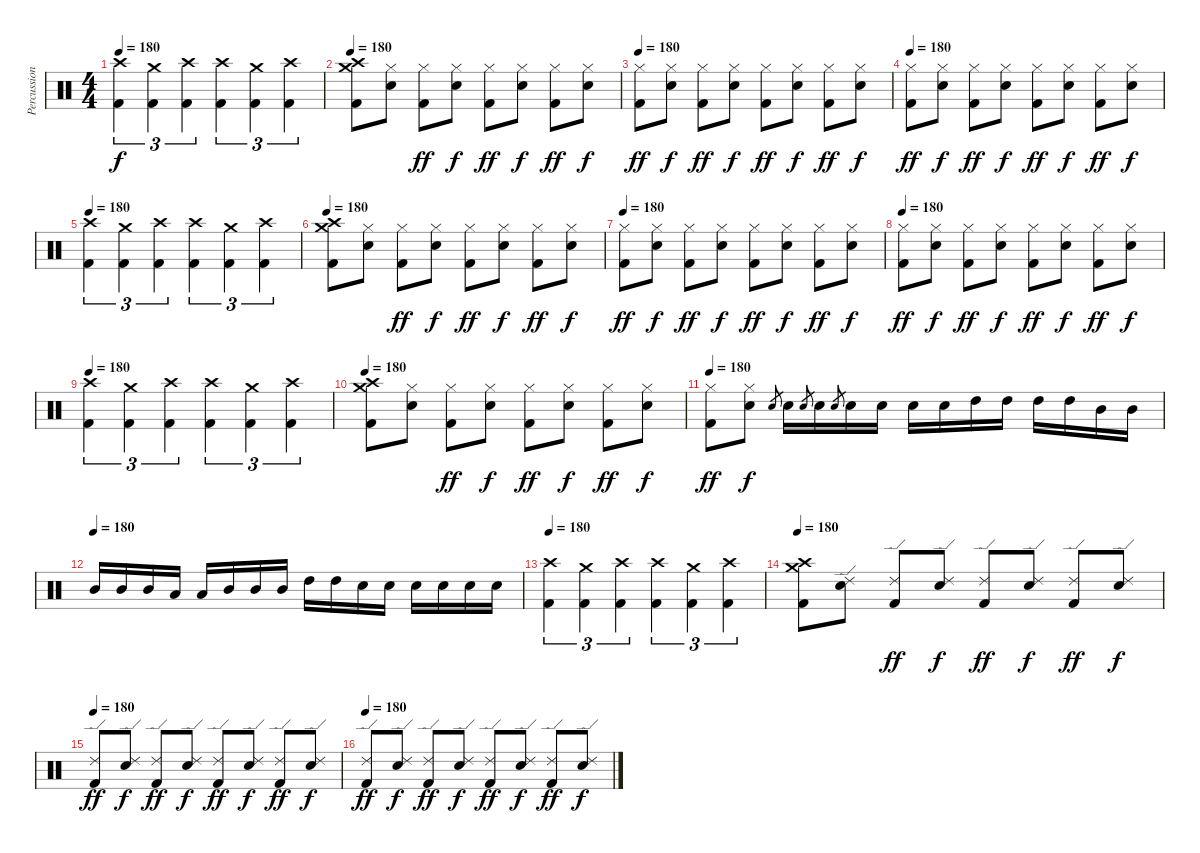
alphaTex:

\track ("Percussion" "Percussion") {instrument percussion}
\staff {score}
\articulation defaults
\ts (4 4)
\tempo 180
\clef neutral
\ks c
("Crash high (hit)" "Kick (hit) 2").4{tu (3 2) dy f} ("Crash medium (hit)" "Kick (hit) 2").4{tu (3 2)} ("Crash high (hit)" "Kick (hit) 2").4{tu (3 2)} ("Crash high (hit)" "Kick (hit) 2").4{tu (3 2)} ("Crash medium (hit)" "Kick (hit) 2").4{tu (3 2)} ("Crash high (hit)" "Kick (hit) 2").4{tu (3 2)} |
\tempo 180
("Crash high (hit)" "Crash medium (hit)" "Kick (hit) 2").8 ("Hi-Hat (closed)" "Snare (hit) 2").8 ("Hi-Hat (closed)" "Kick (hit) 2").8{dy ff} ("Hi-Hat (closed)" "Snare (hit) 2").8{dy f} ("Hi-Hat (closed)" "Kick (hit) 2").8{dy ff} ("Hi-Hat (closed)" "Snare (hit) 2").8{dy f} ("Hi-Hat (closed)" "Kick (hit) 2").8{dy ff} ("Hi-Hat (closed)" "Snare (hit) 2").8{dy f} |
\tempo 180
("Hi-Hat (closed)" "Kick (hit) 2").8{dy ff} ("Hi-Hat (closed)" "Snare (hit) 2").8{dy f} ("Hi-Hat (closed)" "Kick (hit) 2").8{dy ff} ("Hi-Hat (closed)" "Snare (hit) 2").8{dy f} ("Hi-Hat (closed)" "Kick (hit) 2").8{dy ff} ("Hi-Hat (closed)" "Snare (hit) 2").8{dy f} ("Hi-Hat (closed)" "Kick (hit) 2").8{dy ff} ("Hi-Hat (closed)" "Snare (hit) 2").8{dy f} |
\tempo 180
("Hi-Hat (closed)" "Kick (hit) 2").8{dy ff} ("Hi-Hat (closed)" "Snare (hit) 2").8{dy f} ("Hi-Hat (closed)" "Kick (hit) 2").8{dy ff} ("Hi-Hat (closed)" "Snare (hit) 2").8{dy f} ("Hi-Hat (closed)" "Kick (hit) 2").8{dy ff} ("Hi-Hat (closed)" "Snare (hit) 2").8{dy f} ("Hi-Hat (closed)" "Kick (hit) 2").8{dy ff} ("Hi-Hat (closed)" "Snare (hit) 2").8{dy f} |
\tempo 180
("Crash high (hit)" "Kick (hit) 2").4{tu (3 2)} ("Crash medium (hit)" "Kick (hit) 2").4{tu (3 2)} ("Crash high (hit)" "Kick (hit) 2").4{tu (3 2)} ("Crash high (hit)" "Kick (hit) 2").4{tu (3 2)} ("Crash medium (hit)" "Kick (hit) 2").4{tu (3 2)} ("Crash high (hit)" "Kick (hit) 2").4{tu (3 2)} |
\tempo 180
("Crash high (hit)" "Crash medium (hit)" "Kick (hit) 2").8 ("Hi-Hat (closed)" "Snare (hit) 2").8 ("Hi-Hat (closed)" "Kick (hit) 2").8{dy ff} ("Hi-Hat (closed)" "Snare (hit) 2").8{dy f} ("Hi-Hat (closed)" "Kick (hit) 2").8{dy ff} ("Hi-Hat (closed)" "Snare (hit) 2").8{dy f} ("Hi-Hat (closed)" "Kick (hit) 2").8{dy ff} ("Hi-Hat (closed)" "Snare (hit) 2").8{dy f} |
\tempo 180
("Hi-Hat (closed)" "Kick (hit) 2").8{dy ff} ("Hi-Hat (closed)" "Snare (hit) 2").8{dy f} ("Hi-Hat (closed)" "Kick (hit) 2").8{dy ff} ("Hi-Hat (closed)" "Snare (hit) 2").8{dy f} ("Hi-Hat (closed)" "Kick (hit) 2").8{dy ff} ("Hi-Hat (closed)" "Snare (hit) 2").8{dy f} ("Hi-Hat (closed)" "Kick (hit) 2").8{dy ff} ("Hi-Hat (closed)" "Snare (hit) 2").8{dy f} |
\tempo 180
("Hi-Hat (closed)" "Kick (hit) 2").8{dy ff} ("Hi-Hat (closed)" "Snare (hit) 2").8{dy f} ("Hi-Hat (closed)" "Kick (hit) 2").8{dy ff} ("Hi-Hat (closed)" "Snare (hit) 2").8{dy f} ("Hi-Hat (closed)" "Kick (hit) 2").8{dy ff} ("Hi-Hat (closed)" "Snare (hit) 2").8{dy f} ("Hi-Hat (closed)" "Kick (hit) 2").8{dy ff} ("Hi-Hat (closed)" "Snare (hit) 2").8{dy f} |
\tempo 180
("Crash high (hit)" "Kick (hit) 2").4{tu (3 2)} ("Crash medium (hit)" "Kick (hit) 2").4{tu (3 2)} ("Crash high (hit)" "Kick (hit) 2").4{tu (3 2)} ("Crash high (hit)" "Kick (hit) 2").4{tu (3 2)} ("Crash medium (hit)" "Kick (hit) 2").4{tu (3 2)} ("Crash high (hit)" "Kick (hit) 2").4{tu (3 2)} |
\tempo 180
("Crash high (hit)" "Crash medium (hit)" "Kick (hit) 2").8 ("Hi-Hat (closed)" "Snare (hit) 2").8 ("Hi-Hat (closed)" "Kick (hit) 2").8{dy ff} ("Hi-Hat (closed)" "Snare (hit) 2").8{dy f} ("Hi-Hat (closed)" "Kick (hit) 2").8{dy ff} ("Hi-Hat (closed)" "Snare (hit) 2").8{dy f} ("Hi-Hat (closed)" "Kick (hit) 2").8{dy ff} ("Hi-Hat (closed)" "Snare (hit) 2").8{dy f} |
\tempo 180
("Hi-Hat (closed)" "Kick (hit) 2").8{dy ff} ("Hi-Hat (closed)" "Snare (hit) 2").8{dy f} "Snare (hit) 2".8{gr} "Snare (hit) 2".16 "Snare (hit) 2".8{gr} "Snare (hit) 2".16 "Snare (hit) 2".8{gr} "Snare (hit) 2".16 "Snare (hit) 2".16 "Snare (hit) 2".16 "Snare (hit) 2".16 "High Tom (hit)".16 "High Tom (hit)".16 "High Tom (hit)".16 "High Tom (hit)".16 "Mid Tom (hit)".16 "Mid Tom (hit)".16 |
\tempo (180)
"Mid Tom (hit)".16 "Mid Tom (hit)".16 "Mid Tom (hit)".16 "Low Floor Tom (hit)".16 "Low Floor Tom (hit)".16 "Mid Tom (hit)".16 "Mid Tom (hit)".16 "Mid Tom (hit)".16 "High Tom (hit)".16 "High Tom (hit)".16 "Snare (hit) 2".16 "Snare (hit) 2".16 "Snare (hit) 2".16 "Snare (hit) 2".16 "Snare (hit) 2".16 "Snare (hit) 2".16 |
\tempo 180
("Crash high (hit)" "Kick (hit) 2").4{tu (3 2)} ("Crash medium (hit)" "Kick (hit) 2").4{tu (3 2)} ("Crash high (hit)" "Kick (hit) 2").4{tu (3 2)} ("Crash high (hit)" "Kick (hit) 2").4{tu (3 2)} ("Crash medium (hit)" "Kick (hit) 2").4{tu (3 2)} ("Crash high (hit)" "Kick (hit) 2").4{tu (3 2)} |
\tempo 180
("Crash high (hit)" "Crash medium (hit)" "Kick (hit) 2").8 ("Ride (edge) 2" "Snare (hit) 2").8 ("Ride (edge) 2" "Kick (hit) 2").8{dy ff} ("Ride (edge) 2" "Snare (hit) 2").8{dy f} ("Ride (edge) 2" "Kick (hit) 2").8{dy ff} ("Ride (edge) 2" "Snare (hit) 2").8{dy f} ("Ride (edge) 2" "Kick (hit) 2").8{dy ff} ("Ride (edge) 2" "Snare (hit) 2").8{dy f} |
\tempo 180
("Ride (edge) 2" "Kick (hit) 2").8{dy ff} ("Ride (edge) 2" "Snare (hit) 2").8{dy f} ("Ride (edge) 2" "Kick (hit) 2").8{dy ff} ("Ride (edge) 2" "Snare (hit) 2").8{dy f} ("Ride (edge) 2" "Kick (hit) 2").8{dy ff} ("Ride (edge) 2" "Snare (hit) 2").8{dy f} ("Ride (edge) 2" "Kick (hit) 2").8{dy ff} ("Ride (edge) 2" "Snare (hit) 2").8{dy f} |
\tempo 180
("Ride (edge) 2" "Kick (hit) 2").8{dy ff} ("Ride (edge) 2" "Snare (hit) 2").8{dy f} ("Ride (edge) 2" "Kick (hit) 2").8{dy ff} ("Ride (edge) 2" "Snare (hit) 2").8{dy f} ("Ride (edge) 2" "Kick (hit) 2").8{dy ff} ("Ride (edge) 2" "Snare (hit) 2").8{dy f} ("Ride (edge) 2" "Kick (hit) 2").8{dy ff} ("Ride (edge) 2" "Snare (hit) 2").8{dy f}
